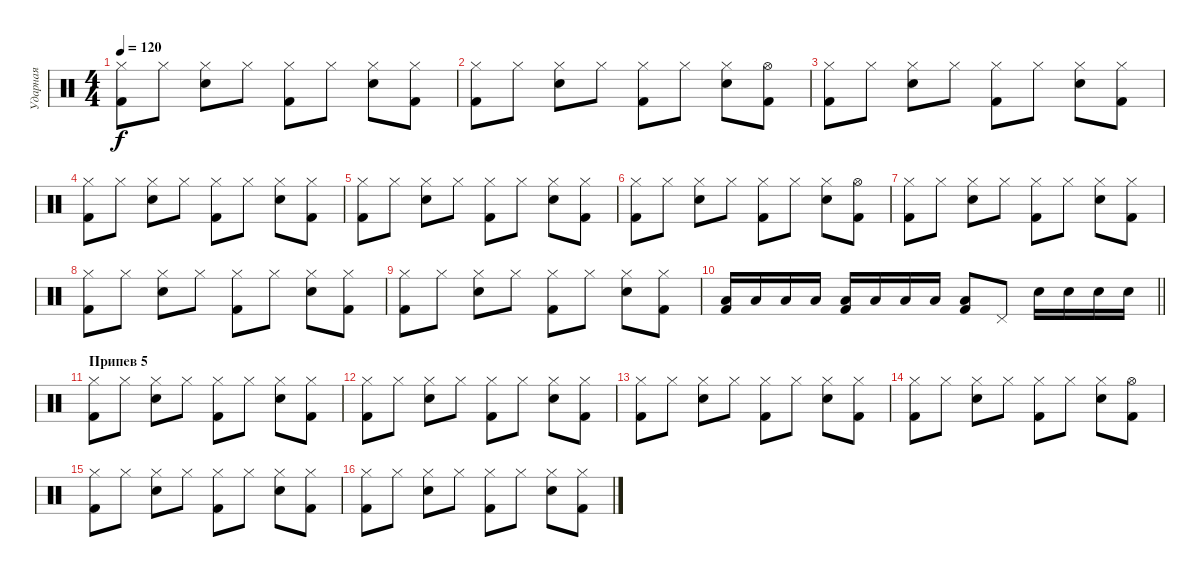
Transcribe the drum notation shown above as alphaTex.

\track ("Ударная" "Ударная") {instrument percussion}
\staff {score}
\articulation defaults
\ts (4 4)
\tempo 120
\clef neutral
\ks c
("Hi-Hat (closed)" "Kick (hit) 2").8{dy f} "Hi-Hat (closed)".8 ("Hi-Hat (closed)" "Electric Snare (hit)").8 "Hi-Hat (closed)".8 ("Hi-Hat (closed)" "Kick (hit) 2").8 "Hi-Hat (closed)".8 ("Hi-Hat (closed)" "Electric Snare (hit)").8 ("Hi-Hat (closed)" "Kick (hit) 2").8 |
("Hi-Hat (closed)" "Kick (hit) 2").8 "Hi-Hat (closed)".8 ("Hi-Hat (closed)" "Electric Snare (hit)").8 "Hi-Hat (closed)".8 ("Hi-Hat (closed)" "Kick (hit) 2").8 "Hi-Hat (closed)".8 ("Hi-Hat (closed)" "Electric Snare (hit)").8 ("Hi-Hat (open)" "Kick (hit) 2").8 |
("Hi-Hat (closed)" "Kick (hit) 2").8 "Hi-Hat (closed)".8 ("Hi-Hat (closed)" "Electric Snare (hit)").8 "Hi-Hat (closed)".8 ("Hi-Hat (closed)" "Kick (hit) 2").8 "Hi-Hat (closed)".8 ("Hi-Hat (closed)" "Electric Snare (hit)").8 ("Hi-Hat (closed)" "Kick (hit) 2").8 |
("Hi-Hat (closed)" "Kick (hit) 2").8 "Hi-Hat (closed)".8 ("Hi-Hat (closed)" "Electric Snare (hit)").8 "Hi-Hat (closed)".8 ("Hi-Hat (closed)" "Kick (hit) 2").8 "Hi-Hat (closed)".8 ("Hi-Hat (closed)" "Electric Snare (hit)").8 ("Hi-Hat (closed)" "Kick (hit) 2").8 |
("Hi-Hat (closed)" "Kick (hit) 2").8 "Hi-Hat (closed)".8 ("Hi-Hat (closed)" "Electric Snare (hit)").8 "Hi-Hat (closed)".8 ("Hi-Hat (closed)" "Kick (hit) 2").8 "Hi-Hat (closed)".8 ("Hi-Hat (closed)" "Electric Snare (hit)").8 ("Hi-Hat (closed)" "Kick (hit) 2").8 |
("Hi-Hat (closed)" "Kick (hit) 2").8 "Hi-Hat (closed)".8 ("Hi-Hat (closed)" "Electric Snare (hit)").8 "Hi-Hat (closed)".8 ("Hi-Hat (closed)" "Kick (hit) 2").8 "Hi-Hat (closed)".8 ("Hi-Hat (closed)" "Electric Snare (hit)").8 ("Hi-Hat (open)" "Kick (hit) 2").8 |
("Hi-Hat (closed)" "Kick (hit) 2").8 "Hi-Hat (closed)".8 ("Hi-Hat (closed)" "Electric Snare (hit)").8 "Hi-Hat (closed)".8 ("Hi-Hat (closed)" "Kick (hit) 2").8 "Hi-Hat (closed)".8 ("Hi-Hat (closed)" "Electric Snare (hit)").8 ("Hi-Hat (closed)" "Kick (hit) 2").8 |
("Hi-Hat (closed)" "Kick (hit) 2").8 "Hi-Hat (closed)".8 ("Hi-Hat (closed)" "Electric Snare (hit)").8 "Hi-Hat (closed)".8 ("Hi-Hat (closed)" "Kick (hit) 2").8 "Hi-Hat (closed)".8 ("Hi-Hat (closed)" "Electric Snare (hit)").8 ("Hi-Hat (closed)" "Kick (hit) 2").8 |
("Hi-Hat (closed)" "Kick (hit) 2").8 "Hi-Hat (closed)".8 ("Hi-Hat (closed)" "Electric Snare (hit)").8 "Hi-Hat (closed)".8 ("Hi-Hat (closed)" "Kick (hit) 2").8 "Hi-Hat (closed)".8 ("Hi-Hat (closed)" "Electric Snare (hit)").8 ("Hi-Hat (closed)" "Kick (hit) 2").8 |
\barLineRight lightlight
("Low Tom (hit)" "Kick (hit) 2").16 "Low Tom (hit)".16 "Low Tom (hit)".16 "Low Tom (hit)".16 ("Low Tom (hit)" "Kick (hit) 2").16 "Low Tom (hit)".16 "Low Tom (hit)".16 "Low Tom (hit)".16 ("Low Tom (hit)" "Kick (hit) 2").8 "Pedal Hi-Hat (hit)".8 "Snare (hit) 2".16 "Snare (hit) 2".16 "Snare (hit) 2".16 "Snare (hit) 2".16 |
\section ("" "Припев 5")
("Hi-Hat (closed)" "Kick (hit) 2").8 "Hi-Hat (closed)".8 ("Hi-Hat (closed)" "Electric Snare (hit)").8 "Hi-Hat (closed)".8 ("Hi-Hat (closed)" "Kick (hit) 2").8 "Hi-Hat (closed)".8 ("Hi-Hat (closed)" "Electric Snare (hit)").8 ("Hi-Hat (closed)" "Kick (hit) 2").8 |
("Hi-Hat (closed)" "Kick (hit) 2").8 "Hi-Hat (closed)".8 ("Hi-Hat (closed)" "Electric Snare (hit)").8 "Hi-Hat (closed)".8 ("Hi-Hat (closed)" "Kick (hit) 2").8 "Hi-Hat (closed)".8 ("Hi-Hat (closed)" "Electric Snare (hit)").8 ("Hi-Hat (closed)" "Kick (hit) 2").8 |
("Hi-Hat (closed)" "Kick (hit) 2").8 "Hi-Hat (closed)".8 ("Hi-Hat (closed)" "Electric Snare (hit)").8 "Hi-Hat (closed)".8 ("Hi-Hat (closed)" "Kick (hit) 2").8 "Hi-Hat (closed)".8 ("Hi-Hat (closed)" "Electric Snare (hit)").8 ("Hi-Hat (closed)" "Kick (hit) 2").8 |
("Hi-Hat (closed)" "Kick (hit) 2").8 "Hi-Hat (closed)".8 ("Hi-Hat (closed)" "Electric Snare (hit)").8 "Hi-Hat (closed)".8 ("Hi-Hat (closed)" "Kick (hit) 2").8 "Hi-Hat (closed)".8 ("Hi-Hat (closed)" "Electric Snare (hit)").8 ("Hi-Hat (open)" "Kick (hit) 2").8 |
("Hi-Hat (closed)" "Kick (hit) 2").8 "Hi-Hat (closed)".8 ("Hi-Hat (closed)" "Electric Snare (hit)").8 "Hi-Hat (closed)".8 ("Hi-Hat (closed)" "Kick (hit) 2").8 "Hi-Hat (closed)".8 ("Hi-Hat (closed)" "Electric Snare (hit)").8 ("Hi-Hat (closed)" "Kick (hit) 2").8 |
("Hi-Hat (closed)" "Kick (hit) 2").8 "Hi-Hat (closed)".8 ("Hi-Hat (closed)" "Electric Snare (hit)").8 "Hi-Hat (closed)".8 ("Hi-Hat (closed)" "Kick (hit) 2").8 "Hi-Hat (closed)".8 ("Hi-Hat (closed)" "Electric Snare (hit)").8 ("Hi-Hat (closed)" "Kick (hit) 2").8
